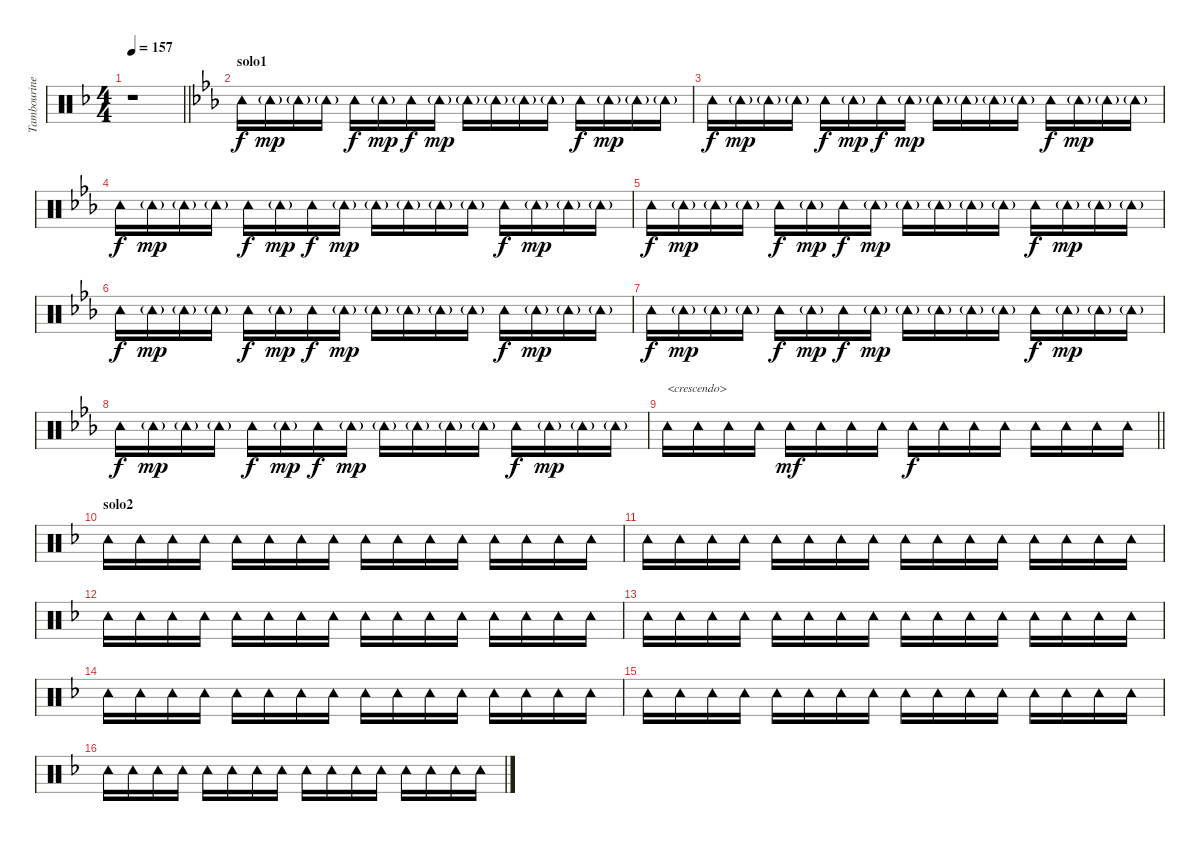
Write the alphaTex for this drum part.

\track ("Tambourine" "Tambourine") {instrument percussion}
\staff {score}
\articulation defaults
\ts (4 4)
\tempo 157
\clef neutral
\barLineRight lightlight
\ks f
r.1{dy f} |
\section ("" "solo1")
\ks eb "Tambourine (hit)".16 "Tambourine (hit)"{g}.16{dy mp} "Tambourine (hit)"{g}.16 "Tambourine (hit)"{g}.16 "Tambourine (hit)".16{dy f} "Tambourine (hit)"{g}.16{dy mp} "Tambourine (hit)".16{dy f} "Tambourine (hit)"{g}.16{dy mp} "Tambourine (hit)"{g}.16 "Tambourine (hit)"{g}.16 "Tambourine (hit)"{g}.16 "Tambourine (hit)"{g}.16 "Tambourine (hit)".16{dy f} "Tambourine (hit)"{g}.16{dy mp} "Tambourine (hit)"{g}.16 "Tambourine (hit)"{g}.16
|
"Tambourine (hit)".16{dy f} "Tambourine (hit)"{g}.16{dy mp} "Tambourine (hit)"{g}.16 "Tambourine (hit)"{g}.16 "Tambourine (hit)".16{dy f} "Tambourine (hit)"{g}.16{dy mp} "Tambourine (hit)".16{dy f} "Tambourine (hit)"{g}.16{dy mp} "Tambourine (hit)"{g}.16 "Tambourine (hit)"{g}.16 "Tambourine (hit)"{g}.16 "Tambourine (hit)"{g}.16 "Tambourine (hit)".16{dy f} "Tambourine (hit)"{g}.16{dy mp} "Tambourine (hit)"{g}.16 "Tambourine (hit)"{g}.16 |
"Tambourine (hit)".16{dy f} "Tambourine (hit)"{g}.16{dy mp} "Tambourine (hit)"{g}.16 "Tambourine (hit)"{g}.16 "Tambourine (hit)".16{dy f} "Tambourine (hit)"{g}.16{dy mp} "Tambourine (hit)".16{dy f} "Tambourine (hit)"{g}.16{dy mp} "Tambourine (hit)"{g}.16 "Tambourine (hit)"{g}.16 "Tambourine (hit)"{g}.16 "Tambourine (hit)"{g}.16 "Tambourine (hit)".16{dy f} "Tambourine (hit)"{g}.16{dy mp} "Tambourine (hit)"{g}.16 "Tambourine (hit)"{g}.16 |
"Tambourine (hit)".16{dy f} "Tambourine (hit)"{g}.16{dy mp} "Tambourine (hit)"{g}.16 "Tambourine (hit)"{g}.16 "Tambourine (hit)".16{dy f} "Tambourine (hit)"{g}.16{dy mp} "Tambourine (hit)".16{dy f} "Tambourine (hit)"{g}.16{dy mp} "Tambourine (hit)"{g}.16 "Tambourine (hit)"{g}.16 "Tambourine (hit)"{g}.16 "Tambourine (hit)"{g}.16 "Tambourine (hit)".16{dy f} "Tambourine (hit)"{g}.16{dy mp} "Tambourine (hit)"{g}.16 "Tambourine (hit)"{g}.16 |
"Tambourine (hit)".16{dy f} "Tambourine (hit)"{g}.16{dy mp} "Tambourine (hit)"{g}.16 "Tambourine (hit)"{g}.16 "Tambourine (hit)".16{dy f} "Tambourine (hit)"{g}.16{dy mp} "Tambourine (hit)".16{dy f} "Tambourine (hit)"{g}.16{dy mp} "Tambourine (hit)"{g}.16 "Tambourine (hit)"{g}.16 "Tambourine (hit)"{g}.16 "Tambourine (hit)"{g}.16 "Tambourine (hit)".16{dy f} "Tambourine (hit)"{g}.16{dy mp} "Tambourine (hit)"{g}.16 "Tambourine (hit)"{g}.16 |
"Tambourine (hit)".16{dy f} "Tambourine (hit)"{g}.16{dy mp} "Tambourine (hit)"{g}.16 "Tambourine (hit)"{g}.16 "Tambourine (hit)".16{dy f} "Tambourine (hit)"{g}.16{dy mp} "Tambourine (hit)".16{dy f} "Tambourine (hit)"{g}.16{dy mp} "Tambourine (hit)"{g}.16 "Tambourine (hit)"{g}.16 "Tambourine (hit)"{g}.16 "Tambourine (hit)"{g}.16 "Tambourine (hit)".16{dy f} "Tambourine (hit)"{g}.16{dy mp} "Tambourine (hit)"{g}.16 "Tambourine (hit)"{g}.16 |
"Tambourine (hit)".16{dy f} "Tambourine (hit)"{g}.16{dy mp} "Tambourine (hit)"{g}.16 "Tambourine (hit)"{g}.16 "Tambourine (hit)".16{dy f} "Tambourine (hit)"{g}.16{dy mp} "Tambourine (hit)".16{dy f} "Tambourine (hit)"{g}.16{dy mp} "Tambourine (hit)"{g}.16 "Tambourine (hit)"{g}.16 "Tambourine (hit)"{g}.16 "Tambourine (hit)"{g}.16 "Tambourine (hit)".16{dy f} "Tambourine (hit)"{g}.16{dy mp} "Tambourine (hit)"{g}.16 "Tambourine (hit)"{g}.16 |
\barLineRight lightlight "Tambourine (hit)".16{txt "<crescendo>"} "Tambourine (hit)".16 "Tambourine (hit)".16 "Tambourine (hit)".16 "Tambourine (hit)".16{dy mf} "Tambourine (hit)".16 "Tambourine (hit)".16 "Tambourine (hit)".16 "Tambourine (hit)".16{dy f} "Tambourine (hit)".16 "Tambourine (hit)".16 "Tambourine (hit)".16 "Tambourine (hit)".16 "Tambourine (hit)".16 "Tambourine (hit)".16 "Tambourine (hit)".16
|
\section ("" "solo2")
\ks f "Tambourine (hit)".16 "Tambourine (hit)".16 "Tambourine (hit)".16 "Tambourine (hit)".16 "Tambourine (hit)".16 "Tambourine (hit)".16 "Tambourine (hit)".16 "Tambourine (hit)".16 "Tambourine (hit)".16 "Tambourine (hit)".16 "Tambourine (hit)".16 "Tambourine (hit)".16 "Tambourine (hit)".16 "Tambourine (hit)".16 "Tambourine (hit)".16 "Tambourine (hit)".16
|
"Tambourine (hit)".16 "Tambourine (hit)".16 "Tambourine (hit)".16 "Tambourine (hit)".16 "Tambourine (hit)".16 "Tambourine (hit)".16 "Tambourine (hit)".16 "Tambourine (hit)".16 "Tambourine (hit)".16 "Tambourine (hit)".16 "Tambourine (hit)".16 "Tambourine (hit)".16 "Tambourine (hit)".16 "Tambourine (hit)".16 "Tambourine (hit)".16 "Tambourine (hit)".16 |
"Tambourine (hit)".16 "Tambourine (hit)".16 "Tambourine (hit)".16 "Tambourine (hit)".16 "Tambourine (hit)".16 "Tambourine (hit)".16 "Tambourine (hit)".16 "Tambourine (hit)".16 "Tambourine (hit)".16 "Tambourine (hit)".16 "Tambourine (hit)".16 "Tambourine (hit)".16 "Tambourine (hit)".16 "Tambourine (hit)".16 "Tambourine (hit)".16 "Tambourine (hit)".16 |
"Tambourine (hit)".16 "Tambourine (hit)".16 "Tambourine (hit)".16 "Tambourine (hit)".16 "Tambourine (hit)".16 "Tambourine (hit)".16 "Tambourine (hit)".16 "Tambourine (hit)".16 "Tambourine (hit)".16 "Tambourine (hit)".16 "Tambourine (hit)".16 "Tambourine (hit)".16 "Tambourine (hit)".16 "Tambourine (hit)".16 "Tambourine (hit)".16 "Tambourine (hit)".16 |
"Tambourine (hit)".16 "Tambourine (hit)".16 "Tambourine (hit)".16 "Tambourine (hit)".16 "Tambourine (hit)".16 "Tambourine (hit)".16 "Tambourine (hit)".16 "Tambourine (hit)".16 "Tambourine (hit)".16 "Tambourine (hit)".16 "Tambourine (hit)".16 "Tambourine (hit)".16 "Tambourine (hit)".16 "Tambourine (hit)".16 "Tambourine (hit)".16 "Tambourine (hit)".16 |
"Tambourine (hit)".16 "Tambourine (hit)".16 "Tambourine (hit)".16 "Tambourine (hit)".16 "Tambourine (hit)".16 "Tambourine (hit)".16 "Tambourine (hit)".16 "Tambourine (hit)".16 "Tambourine (hit)".16 "Tambourine (hit)".16 "Tambourine (hit)".16 "Tambourine (hit)".16 "Tambourine (hit)".16 "Tambourine (hit)".16 "Tambourine (hit)".16 "Tambourine (hit)".16 |
"Tambourine (hit)".16 "Tambourine (hit)".16 "Tambourine (hit)".16 "Tambourine (hit)".16 "Tambourine (hit)".16 "Tambourine (hit)".16 "Tambourine (hit)".16 "Tambourine (hit)".16 "Tambourine (hit)".16 "Tambourine (hit)".16 "Tambourine (hit)".16 "Tambourine (hit)".16 "Tambourine (hit)".16 "Tambourine (hit)".16 "Tambourine (hit)".16 "Tambourine (hit)".16
